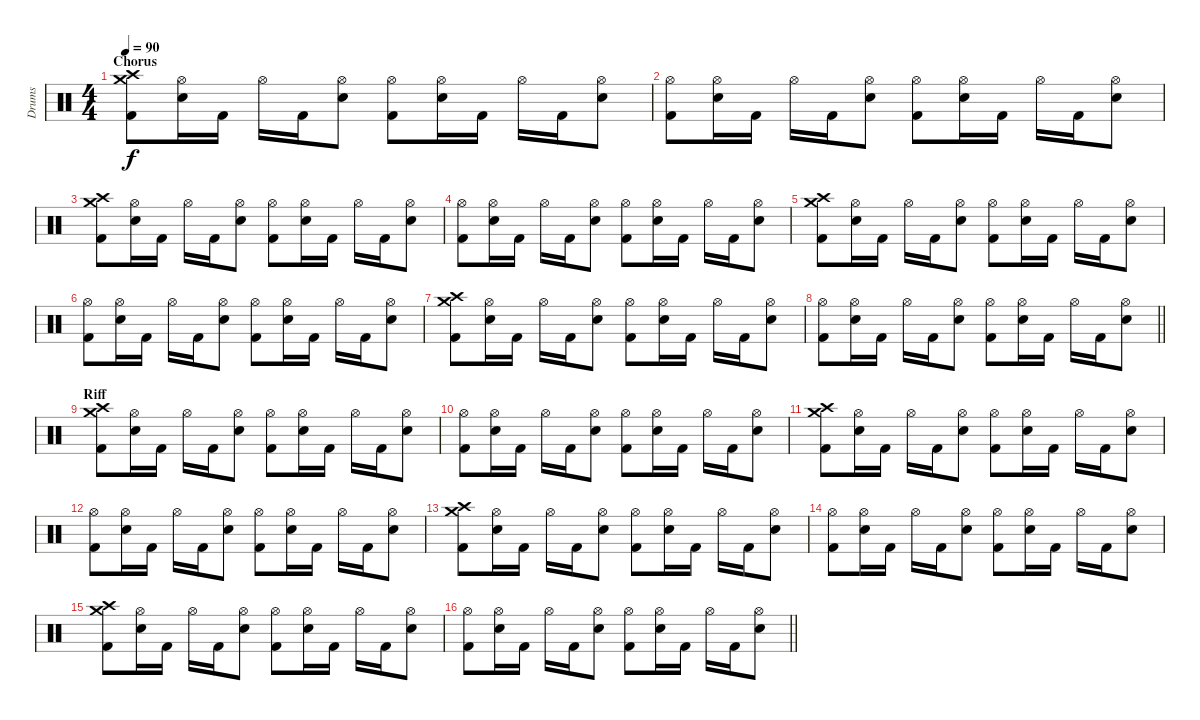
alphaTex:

\track ("Drums" "Drums") {instrument percussion}
\staff {score}
\articulation defaults
\ts (4 4)
\section ("" "Chorus")
\tempo 90
\clef neutral
\ks c
("Kick (hit) 2" "Crash medium (hit)" "Crash high (hit)").8{dy f} ("Snare (hit) 2" "Hi-Hat (open)").16 "Kick (hit) 2".16 "Hi-Hat (open)".16 "Kick (hit) 2".16 ("Snare (hit) 2" "Hi-Hat (open)").8 ("Kick (hit) 2" "Hi-Hat (open)").8 ("Snare (hit) 2" "Hi-Hat (open)").16 "Kick (hit) 2".16 "Hi-Hat (open)".16 "Kick (hit) 2".16 ("Snare (hit) 2" "Hi-Hat (open)").8 |
("Kick (hit) 2" "Hi-Hat (open)").8 ("Snare (hit) 2" "Hi-Hat (open)").16 "Kick (hit) 2".16 "Hi-Hat (open)".16 "Kick (hit) 2".16 ("Snare (hit) 2" "Hi-Hat (open)").8 ("Kick (hit) 2" "Hi-Hat (open)").8 ("Snare (hit) 2" "Hi-Hat (open)").16 "Kick (hit) 2".16 "Hi-Hat (open)".16 "Kick (hit) 2".16 ("Snare (hit) 2" "Hi-Hat (open)").8 |
("Kick (hit) 2" "Crash medium (hit)" "Crash high (hit)").8 ("Snare (hit) 2" "Hi-Hat (open)").16 "Kick (hit) 2".16 "Hi-Hat (open)".16 "Kick (hit) 2".16 ("Snare (hit) 2" "Hi-Hat (open)").8 ("Kick (hit) 2" "Hi-Hat (open)").8 ("Snare (hit) 2" "Hi-Hat (open)").16 "Kick (hit) 2".16 "Hi-Hat (open)".16 "Kick (hit) 2".16 ("Snare (hit) 2" "Hi-Hat (open)").8 |
("Kick (hit) 2" "Hi-Hat (open)").8 ("Snare (hit) 2" "Hi-Hat (open)").16 "Kick (hit) 2".16 "Hi-Hat (open)".16 "Kick (hit) 2".16 ("Snare (hit) 2" "Hi-Hat (open)").8 ("Kick (hit) 2" "Hi-Hat (open)").8 ("Snare (hit) 2" "Hi-Hat (open)").16 "Kick (hit) 2".16 "Hi-Hat (open)".16 "Kick (hit) 2".16 ("Snare (hit) 2" "Hi-Hat (open)").8 |
("Kick (hit) 2" "Crash medium (hit)" "Crash high (hit)").8 ("Snare (hit) 2" "Hi-Hat (open)").16 "Kick (hit) 2".16 "Hi-Hat (open)".16 "Kick (hit) 2".16 ("Snare (hit) 2" "Hi-Hat (open)").8 ("Kick (hit) 2" "Hi-Hat (open)").8 ("Snare (hit) 2" "Hi-Hat (open)").16 "Kick (hit) 2".16 "Hi-Hat (open)".16 "Kick (hit) 2".16 ("Snare (hit) 2" "Hi-Hat (open)").8 |
("Kick (hit) 2" "Hi-Hat (open)").8 ("Snare (hit) 2" "Hi-Hat (open)").16 "Kick (hit) 2".16 "Hi-Hat (open)".16 "Kick (hit) 2".16 ("Snare (hit) 2" "Hi-Hat (open)").8 ("Kick (hit) 2" "Hi-Hat (open)").8 ("Snare (hit) 2" "Hi-Hat (open)").16 "Kick (hit) 2".16 "Hi-Hat (open)".16 "Kick (hit) 2".16 ("Snare (hit) 2" "Hi-Hat (open)").8 |
("Kick (hit) 2" "Crash medium (hit)" "Crash high (hit)").8 ("Snare (hit) 2" "Hi-Hat (open)").16 "Kick (hit) 2".16 "Hi-Hat (open)".16 "Kick (hit) 2".16 ("Snare (hit) 2" "Hi-Hat (open)").8 ("Kick (hit) 2" "Hi-Hat (open)").8 ("Snare (hit) 2" "Hi-Hat (open)").16 "Kick (hit) 2".16 "Hi-Hat (open)".16 "Kick (hit) 2".16 ("Snare (hit) 2" "Hi-Hat (open)").8 |
\barLineRight lightlight
("Kick (hit) 2" "Hi-Hat (open)").8 ("Snare (hit) 2" "Hi-Hat (open)").16 "Kick (hit) 2".16 "Hi-Hat (open)".16 "Kick (hit) 2".16 ("Snare (hit) 2" "Hi-Hat (open)").8 ("Kick (hit) 2" "Hi-Hat (open)").8 ("Snare (hit) 2" "Hi-Hat (open)").16 "Kick (hit) 2".16 "Hi-Hat (open)".16 "Kick (hit) 2".16 ("Snare (hit) 2" "Hi-Hat (open)").8 |
\section ("" "Riff")
("Kick (hit) 2" "Crash medium (hit)" "Crash high (hit)").8 ("Snare (hit) 2" "Hi-Hat (open)").16 "Kick (hit) 2".16 "Hi-Hat (open)".16 "Kick (hit) 2".16 ("Snare (hit) 2" "Hi-Hat (open)").8 ("Kick (hit) 2" "Hi-Hat (open)").8 ("Snare (hit) 2" "Hi-Hat (open)").16 "Kick (hit) 2".16 "Hi-Hat (open)".16 "Kick (hit) 2".16 ("Snare (hit) 2" "Hi-Hat (open)").8 |
("Kick (hit) 2" "Hi-Hat (open)").8 ("Snare (hit) 2" "Hi-Hat (open)").16 "Kick (hit) 2".16 "Hi-Hat (open)".16 "Kick (hit) 2".16 ("Snare (hit) 2" "Hi-Hat (open)").8 ("Kick (hit) 2" "Hi-Hat (open)").8 ("Snare (hit) 2" "Hi-Hat (open)").16 "Kick (hit) 2".16 "Hi-Hat (open)".16 "Kick (hit) 2".16 ("Snare (hit) 2" "Hi-Hat (open)").8 |
("Kick (hit) 2" "Crash medium (hit)" "Crash high (hit)").8 ("Snare (hit) 2" "Hi-Hat (open)").16 "Kick (hit) 2".16 "Hi-Hat (open)".16 "Kick (hit) 2".16 ("Snare (hit) 2" "Hi-Hat (open)").8 ("Kick (hit) 2" "Hi-Hat (open)").8 ("Snare (hit) 2" "Hi-Hat (open)").16 "Kick (hit) 2".16 "Hi-Hat (open)".16 "Kick (hit) 2".16 ("Snare (hit) 2" "Hi-Hat (open)").8 |
("Kick (hit) 2" "Hi-Hat (open)").8 ("Snare (hit) 2" "Hi-Hat (open)").16 "Kick (hit) 2".16 "Hi-Hat (open)".16 "Kick (hit) 2".16 ("Snare (hit) 2" "Hi-Hat (open)").8 ("Kick (hit) 2" "Hi-Hat (open)").8 ("Snare (hit) 2" "Hi-Hat (open)").16 "Kick (hit) 2".16 "Hi-Hat (open)".16 "Kick (hit) 2".16 ("Snare (hit) 2" "Hi-Hat (open)").8 |
("Kick (hit) 2" "Crash medium (hit)" "Crash high (hit)").8 ("Snare (hit) 2" "Hi-Hat (open)").16 "Kick (hit) 2".16 "Hi-Hat (open)".16 "Kick (hit) 2".16 ("Snare (hit) 2" "Hi-Hat (open)").8 ("Kick (hit) 2" "Hi-Hat (open)").8 ("Snare (hit) 2" "Hi-Hat (open)").16 "Kick (hit) 2".16 "Hi-Hat (open)".16 "Kick (hit) 2".16 ("Snare (hit) 2" "Hi-Hat (open)").8 |
("Kick (hit) 2" "Hi-Hat (open)").8 ("Snare (hit) 2" "Hi-Hat (open)").16 "Kick (hit) 2".16 "Hi-Hat (open)".16 "Kick (hit) 2".16 ("Snare (hit) 2" "Hi-Hat (open)").8 ("Kick (hit) 2" "Hi-Hat (open)").8 ("Snare (hit) 2" "Hi-Hat (open)").16 "Kick (hit) 2".16 "Hi-Hat (open)".16 "Kick (hit) 2".16 ("Snare (hit) 2" "Hi-Hat (open)").8 |
("Kick (hit) 2" "Crash medium (hit)" "Crash high (hit)").8 ("Snare (hit) 2" "Hi-Hat (open)").16 "Kick (hit) 2".16 "Hi-Hat (open)".16 "Kick (hit) 2".16 ("Snare (hit) 2" "Hi-Hat (open)").8 ("Kick (hit) 2" "Hi-Hat (open)").8 ("Snare (hit) 2" "Hi-Hat (open)").16 "Kick (hit) 2".16 "Hi-Hat (open)".16 "Kick (hit) 2".16 ("Snare (hit) 2" "Hi-Hat (open)").8 |
\barLineRight lightlight
("Kick (hit) 2" "Hi-Hat (open)").8 ("Snare (hit) 2" "Hi-Hat (open)").16 "Kick (hit) 2".16 "Hi-Hat (open)".16 "Kick (hit) 2".16 ("Snare (hit) 2" "Hi-Hat (open)").8 ("Kick (hit) 2" "Hi-Hat (open)").8 ("Snare (hit) 2" "Hi-Hat (open)").16 "Kick (hit) 2".16 "Hi-Hat (open)".16 "Kick (hit) 2".16 ("Snare (hit) 2" "Hi-Hat (open)").8
